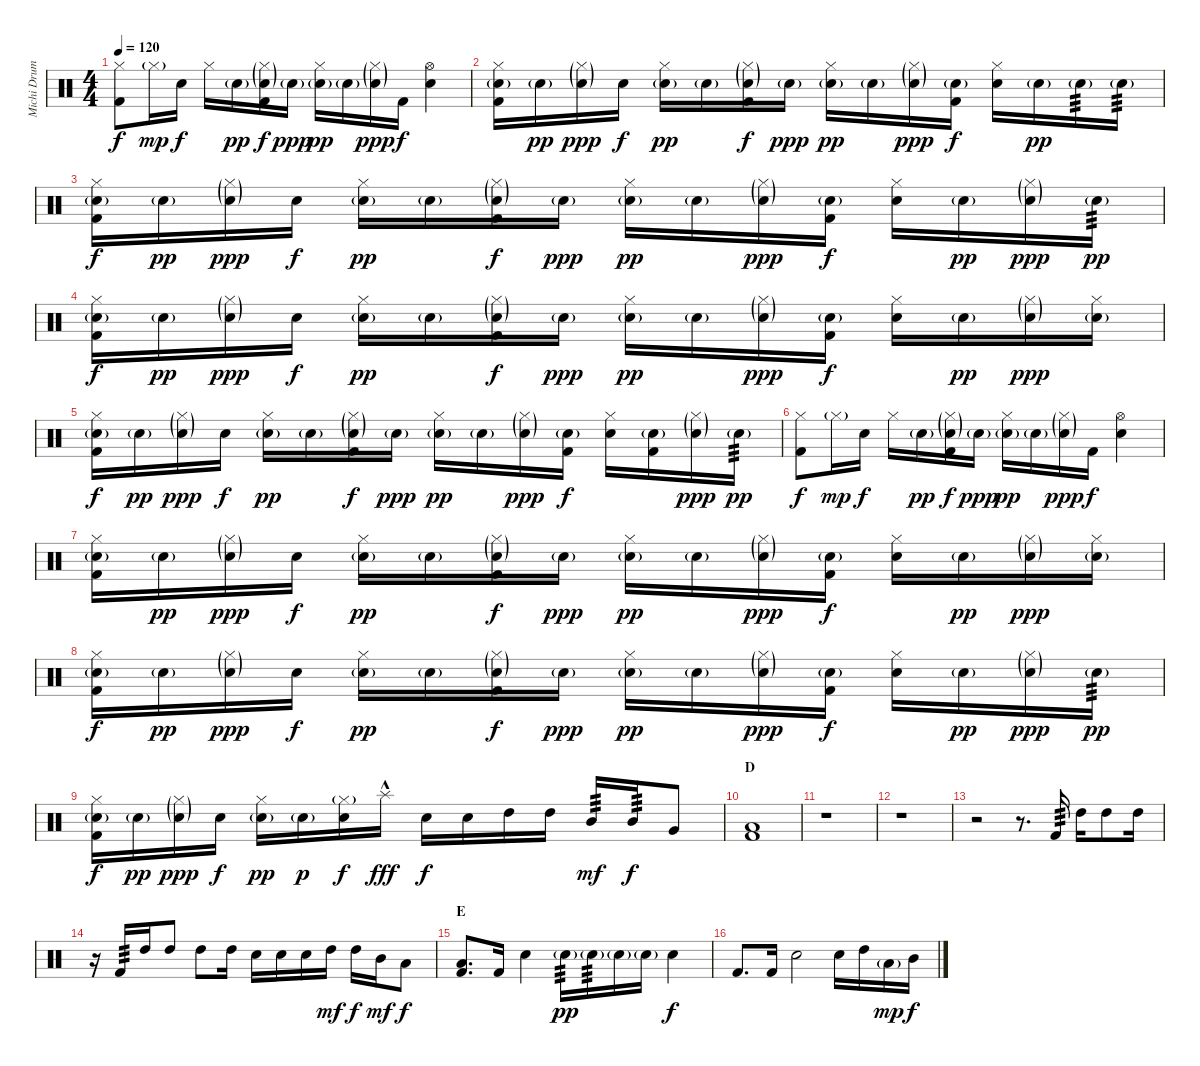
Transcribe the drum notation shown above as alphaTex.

\track ("Michi Drums" "Michi Drum") {instrument percussion}
\staff {score}
\articulation defaults
\ts (4 4)
\tempo 120
\clef neutral
\ks c
("Hi-Hat (closed)" "Kick (hit) 2").8{dy f} "Hi-Hat (closed)"{g}.16{dy mp} "Electric Snare (hit)".16{dy f} "Hi-Hat (closed)".16 "Electric Snare (hit)"{g}.16{dy pp} ("Hi-Hat (closed)"{g} "Electric Snare (hit)"{g} "Kick (hit) 2").16{dy f} "Electric Snare (hit)"{g}.16{dy ppp} ("Hi-Hat (closed)" "Electric Snare (hit)"{g}).16{dy pp} "Electric Snare (hit)"{g}.16 ("Hi-Hat (closed)"{g} "Electric Snare (hit)"{g}).16{dy ppp} "Kick (hit) 2".16{dy f} ("Hi-Hat (open)" "Electric Snare (hit)").4 |
("Hi-Hat (closed)" "Electric Snare (hit)"{g} "Kick (hit) 2").16 "Electric Snare (hit)"{g}.16{dy pp} ("Hi-Hat (closed)"{g} "Electric Snare (hit)"{g}).16{dy ppp} "Electric Snare (hit)".16{dy f} ("Hi-Hat (closed)" "Electric Snare (hit)"{g}).16{dy pp} "Electric Snare (hit)"{g}.16 ("Hi-Hat (closed)"{g} "Electric Snare (hit)"{g} "Kick (hit) 2").16{dy f} "Electric Snare (hit)"{g}.16{dy ppp} ("Hi-Hat (closed)" "Electric Snare (hit)"{g}).16{dy pp} "Electric Snare (hit)"{g}.16 ("Hi-Hat (closed)"{g} "Electric Snare (hit)"{g}).16{dy ppp} ("Electric Snare (hit)"{g} "Kick (hit) 2").16{dy f} ("Hi-Hat (closed)" "Electric Snare (hit)").16 "Electric Snare (hit)"{g}.16{dy pp} "Electric Snare (hit)"{g}.16{tp 3} "Electric Snare (hit)"{g}.16{tp 3} |
("Hi-Hat (closed)" "Electric Snare (hit)"{g} "Kick (hit) 2").16{dy f} "Electric Snare (hit)"{g}.16{dy pp} ("Hi-Hat (closed)"{g} "Electric Snare (hit)"{g}).16{dy ppp} "Electric Snare (hit)".16{dy f} ("Hi-Hat (closed)" "Electric Snare (hit)"{g}).16{dy pp} "Electric Snare (hit)"{g}.16 ("Hi-Hat (closed)"{g} "Electric Snare (hit)"{g} "Kick (hit) 2").16{dy f} "Electric Snare (hit)"{g}.16{dy ppp} ("Hi-Hat (closed)" "Electric Snare (hit)"{g}).16{dy pp} "Electric Snare (hit)"{g}.16 ("Hi-Hat (closed)"{g} "Electric Snare (hit)"{g}).16{dy ppp} ("Electric Snare (hit)"{g} "Kick (hit) 2").16{dy f} ("Hi-Hat (closed)" "Electric Snare (hit)").16 "Electric Snare (hit)"{g}.16{dy pp} ("Hi-Hat (closed)"{g} "Electric Snare (hit)"{g}).16{dy ppp} "Electric Snare (hit)"{g}.16{tp 3 dy pp} |
("Hi-Hat (closed)" "Electric Snare (hit)"{g} "Kick (hit) 2").16{dy f} "Electric Snare (hit)"{g}.16{dy pp} ("Hi-Hat (closed)"{g} "Electric Snare (hit)"{g}).16{dy ppp} "Electric Snare (hit)".16{dy f} ("Hi-Hat (closed)" "Electric Snare (hit)"{g}).16{dy pp} "Electric Snare (hit)"{g}.16 ("Hi-Hat (closed)"{g} "Electric Snare (hit)"{g} "Kick (hit) 2").16{dy f} "Electric Snare (hit)"{g}.16{dy ppp} ("Hi-Hat (closed)" "Electric Snare (hit)"{g}).16{dy pp} "Electric Snare (hit)"{g}.16 ("Hi-Hat (closed)"{g} "Electric Snare (hit)"{g}).16{dy ppp} ("Electric Snare (hit)"{g} "Kick (hit) 2").16{dy f} ("Hi-Hat (closed)" "Electric Snare (hit)").16 "Electric Snare (hit)"{g}.16{dy pp} ("Hi-Hat (closed)"{g} "Electric Snare (hit)"{g}).16{dy ppp} ("Hi-Hat (closed)" "Electric Snare (hit)"{g}).16 |
("Hi-Hat (closed)" "Electric Snare (hit)"{g} "Kick (hit) 2").16{dy f} "Electric Snare (hit)"{g}.16{dy pp} ("Hi-Hat (closed)"{g} "Electric Snare (hit)"{g}).16{dy ppp} "Electric Snare (hit)".16{dy f} ("Hi-Hat (closed)" "Electric Snare (hit)"{g}).16{dy pp} "Electric Snare (hit)"{g}.16 ("Hi-Hat (closed)"{g} "Electric Snare (hit)"{g} "Kick (hit) 2").16{dy f} "Electric Snare (hit)"{g}.16{dy ppp} ("Hi-Hat (closed)" "Electric Snare (hit)"{g}).16{dy pp} "Electric Snare (hit)"{g}.16 ("Hi-Hat (closed)"{g} "Electric Snare (hit)"{g}).16{dy ppp} ("Electric Snare (hit)"{g} "Kick (hit) 2").16{dy f} ("Hi-Hat (closed)" "Electric Snare (hit)").16 ("Electric Snare (hit)"{g} "Kick (hit) 2").16 ("Hi-Hat (closed)"{g} "Electric Snare (hit)"{g}).16{dy ppp} "Electric Snare (hit)"{g}.16{tp 3 dy pp} |
("Hi-Hat (closed)" "Kick (hit) 2").8{dy f} "Hi-Hat (closed)"{g}.16{dy mp} "Electric Snare (hit)".16{dy f} "Hi-Hat (closed)".16 "Electric Snare (hit)"{g}.16{dy pp} ("Hi-Hat (closed)"{g} "Electric Snare (hit)"{g} "Kick (hit) 2").16{dy f} "Electric Snare (hit)"{g}.16{dy ppp} ("Hi-Hat (closed)" "Electric Snare (hit)"{g}).16{dy pp} "Electric Snare (hit)"{g}.16 ("Hi-Hat (closed)"{g} "Electric Snare (hit)"{g}).16{dy ppp} "Kick (hit) 2".16{dy f} ("Hi-Hat (open)" "Electric Snare (hit)").4 |
("Hi-Hat (closed)" "Electric Snare (hit)"{g} "Kick (hit) 2").16 "Electric Snare (hit)"{g}.16{dy pp} ("Hi-Hat (closed)"{g} "Electric Snare (hit)"{g}).16{dy ppp} "Electric Snare (hit)".16{dy f} ("Hi-Hat (closed)" "Electric Snare (hit)"{g}).16{dy pp} "Electric Snare (hit)"{g}.16 ("Hi-Hat (closed)"{g} "Electric Snare (hit)"{g} "Kick (hit) 2").16{dy f} "Electric Snare (hit)"{g}.16{dy ppp} ("Hi-Hat (closed)" "Electric Snare (hit)"{g}).16{dy pp} "Electric Snare (hit)"{g}.16 ("Hi-Hat (closed)"{g} "Electric Snare (hit)"{g}).16{dy ppp} ("Electric Snare (hit)"{g} "Kick (hit) 2").16{dy f} ("Hi-Hat (closed)" "Electric Snare (hit)").16 "Electric Snare (hit)"{g}.16{dy pp} ("Hi-Hat (closed)"{g} "Electric Snare (hit)"{g}).16{dy ppp} ("Hi-Hat (closed)" "Electric Snare (hit)"{g}).16 |
("Hi-Hat (closed)" "Electric Snare (hit)"{g} "Kick (hit) 2").16{dy f} "Electric Snare (hit)"{g}.16{dy pp} ("Hi-Hat (closed)"{g} "Electric Snare (hit)"{g}).16{dy ppp} "Electric Snare (hit)".16{dy f} ("Hi-Hat (closed)" "Electric Snare (hit)"{g}).16{dy pp} "Electric Snare (hit)"{g}.16 ("Hi-Hat (closed)"{g} "Electric Snare (hit)"{g} "Kick (hit) 2").16{dy f} "Electric Snare (hit)"{g}.16{dy ppp} ("Hi-Hat (closed)" "Electric Snare (hit)"{g}).16{dy pp} "Electric Snare (hit)"{g}.16 ("Hi-Hat (closed)"{g} "Electric Snare (hit)"{g}).16{dy ppp} ("Electric Snare (hit)"{g} "Kick (hit) 2").16{dy f} ("Hi-Hat (closed)" "Electric Snare (hit)").16 "Electric Snare (hit)"{g}.16{dy pp} ("Hi-Hat (closed)"{g} "Electric Snare (hit)"{g}).16{dy ppp} "Electric Snare (hit)"{g}.16{tp 3 dy pp} |
("Hi-Hat (closed)" "Electric Snare (hit)"{g} "Kick (hit) 2").16{dy f} "Electric Snare (hit)"{g}.16{dy pp} ("Hi-Hat (closed)"{g} "Electric Snare (hit)"{g}).16{dy ppp} "Electric Snare (hit)".16{dy f} ("Hi-Hat (closed)" "Electric Snare (hit)"{g}).16{dy pp} "Electric Snare (hit)"{g}.16{dy p} ("Hi-Hat (closed)"{g} "Electric Snare (hit)").16{dy f} "Splash (hit)"{hac}.16{dy fff} "Electric Snare (hit)".16{dy f} "Electric Snare (hit)".16 "High Tom (hit)".16 "High Tom (hit)".16 "Mid Tom (hit)".16{tp 3 dy mf} "Mid Tom (hit)".16{tp 3 dy f} "Very Low Tom (hit)".8 |
\section ("" "D")
("Low Floor Tom (hit)" "Kick (hit) 2").1 |
r.1 |
r.1 |
r.2 r.8{d} "Kick (hit) 2".16{tp 3} "High Tom (hit)".16 "High Tom (hit)".8 "High Tom (hit)".16 |
r.16 "Kick (hit) 2".16{tp 3} "High Tom (hit)".16 "High Tom (hit)".8 "High Tom (hit)".8 "High Tom (hit)".16 "Electric Snare (hit)".16 "Electric Snare (hit)".16 "Electric Snare (hit)".16 "High Tom (hit)".16{dy mf} "High Tom (hit)".16{dy f} "Mid Tom (hit)".16{dy mf} "Low Tom (hit)".8{dy f} |
\section ("" "E")
("Low Floor Tom (hit)" "Kick (hit) 2").8{d} "Kick (hit) 2".16 "Electric Snare (hit)".4 "Electric Snare (hit)"{g}.16{tp 3 dy pp} "Electric Snare (hit)"{g}.16{tp 3} "Electric Snare (hit)"{g}.16 "Electric Snare (hit)"{g}.16 "Electric Snare (hit)".4{dy f} |
"Kick (hit) 2".8{d} "Kick (hit) 2".16 "Electric Snare (hit)".2 "Electric Snare (hit)".16 "High Tom (hit)".16 "Low Floor Tom (hit)"{g}.16{dy mp} "Mid Tom (hit)".16{dy f}
